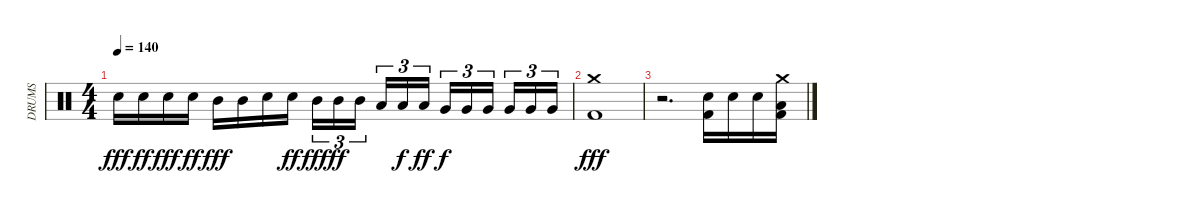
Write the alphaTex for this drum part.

\track ("DRUMS" "DRUMS") {instrument percussion}
\staff {score}
\articulation defaults
\ts (4 4)
\tempo 140
\clef neutral
\ks c "Electric Snare (hit)".16{dy fff} "Electric Snare (hit)".16{dy ff} "Electric Snare (hit)".16{dy fff} "Electric Snare (hit)".16{dy ff} "Mid Tom (hit)".16{dy fff} "Mid Tom (hit)".16 "Electric Snare (hit)".16 "Electric Snare (hit)".16{dy ff} "Mid Tom (hit)".16{tu (3 2) dy fff} "Mid Tom (hit)".16{tu (3 2) dy ff} "Mid Tom (hit)".16{tu (3 2)} "Low Tom (hit)".16{tu (3 2)} "Low Tom (hit)".16{tu (3 2) dy f} "Low Tom (hit)".16{tu (3 2) dy ff} "Very Low Tom (hit)".16{tu (3 2) dy f} "Very Low Tom (hit)".16{tu (3 2)} "Very Low Tom (hit)".16{tu (3 2)} "Very Low Tom (hit)".16{tu (3 2)} "Very Low Tom (hit)".16{tu (3 2)} "Very Low Tom (hit)".16{tu (3 2)}
|
("Crash medium (hit)" "Kick (hit) 2").1{dy fff} |
r.2{d} ("Kick (hit) 2" "Electric Snare (hit)").16 "Electric Snare (hit)".16 "Electric Snare (hit)".16 ("Low Floor Tom (hit)" "Crash medium (hit)" "Kick (hit) 2").16
